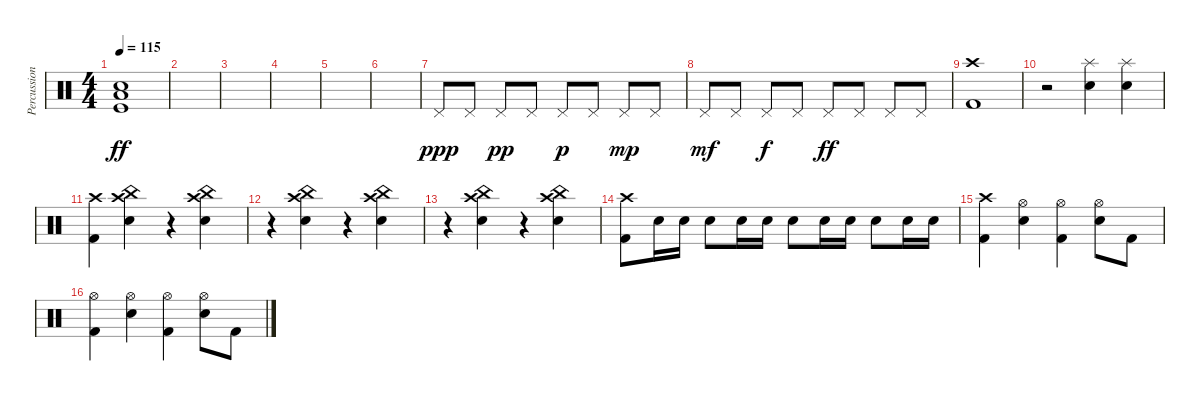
\track ("Percussion" "Percussion") {instrument percussion}
\staff {score}
\articulation defaults
\ts (4 4)
\tempo 115
\clef neutral
\ks c
("Electric Snare (hit)" "Kick (hit)" "Low Tom (hit)").1{dy ff} |
|
|
|
|
|
"Pedal Hi-Hat (hit)".8{dy ppp} "Pedal Hi-Hat (hit)".8 "Pedal Hi-Hat (hit)".8{dy pp} "Pedal Hi-Hat (hit)".8 "Pedal Hi-Hat (hit)".8{dy p} "Pedal Hi-Hat (hit)".8 "Pedal Hi-Hat (hit)".8{dy mp} "Pedal Hi-Hat (hit)".8 |
"Pedal Hi-Hat (hit)".8{dy mf} "Pedal Hi-Hat (hit)".8 "Pedal Hi-Hat (hit)".8{dy f} "Pedal Hi-Hat (hit)".8 "Pedal Hi-Hat (hit)".8{dy ff} "Pedal Hi-Hat (hit)".8 "Pedal Hi-Hat (hit)".8 "Pedal Hi-Hat (hit)".8 |
("Kick (hit) 2" "Crash high (hit)").1 |
r.2 ("Electric Snare (hit)" "Splash (hit)").4 ("Electric Snare (hit)" "Splash (hit)").4 |
("Kick (hit) 2" "Crash high (hit)").4 ("Electric Snare (hit)" "Crash high (hit)" "China (hit)").4 r.4 ("Electric Snare (hit)" "Crash high (hit)" "China (hit)").4 |
r.4 ("Electric Snare (hit)" "Crash high (hit)" "China (hit)").4 r.4 ("Electric Snare (hit)" "Crash high (hit)" "China (hit)").4 |
r.4 ("Electric Snare (hit)" "Crash high (hit)" "China (hit)").4 r.4 ("Electric Snare (hit)" "Crash high (hit)" "China (hit)").4 |
("Kick (hit) 2" "Crash high (hit)").8 "Electric Snare (hit)".16 "Electric Snare (hit)".16 "Electric Snare (hit)".8 "Electric Snare (hit)".16 "Electric Snare (hit)".16 "Electric Snare (hit)".8 "Electric Snare (hit)".16 "Electric Snare (hit)".16 "Electric Snare (hit)".8 "Electric Snare (hit)".16 "Electric Snare (hit)".16 |
("Kick (hit) 2" "Crash high (hit)").4 ("Electric Snare (hit)" "Hi-Hat (open)").4 ("Kick (hit) 2" "Hi-Hat (open)").4 ("Electric Snare (hit)" "Hi-Hat (open)").8 "Kick (hit) 2".8 |
("Kick (hit) 2" "Hi-Hat (open)").4 ("Electric Snare (hit)" "Hi-Hat (open)").4 ("Kick (hit) 2" "Hi-Hat (open)").4 ("Electric Snare (hit)" "Hi-Hat (open)").8 "Kick (hit) 2".8
